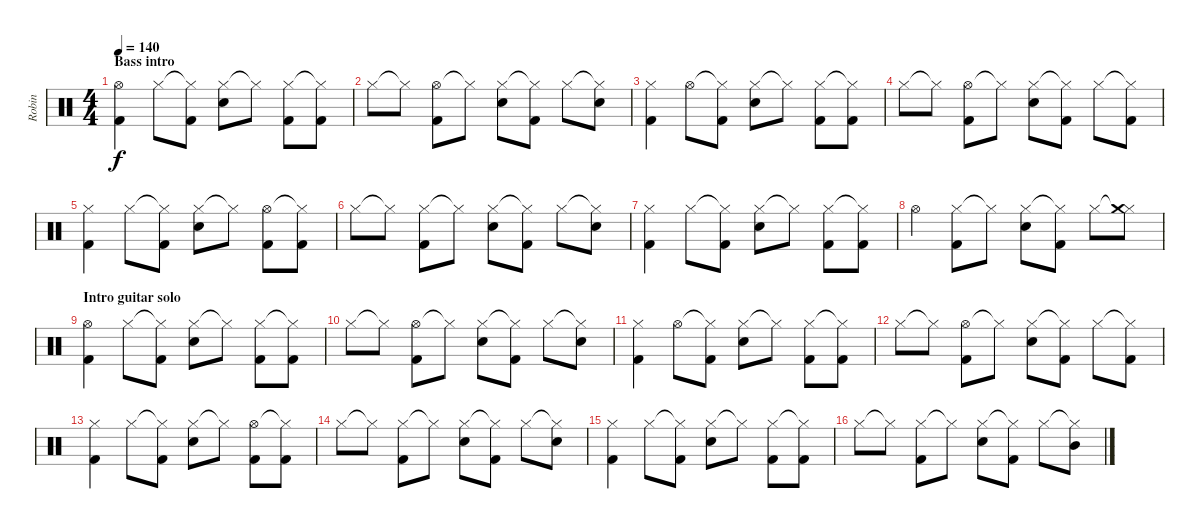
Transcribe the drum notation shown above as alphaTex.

\track ("Robin" "Robin") {instrument percussion}
\staff {score}
\articulation defaults
\ts (4 4)
\section ("" "Bass intro")
\tempo 140
\clef neutral
\ks c
("Hi-Hat (open)" "Kick (hit) 2").4{dy f} "Hi-Hat (closed)".8 ("Hi-Hat (closed)"{t} "Kick (hit) 2").8 ("Hi-Hat (closed)" "Snare (hit) 2").8 "Hi-Hat (closed)"{t}.8 ("Hi-Hat (closed)" "Kick (hit) 2").8 ("Hi-Hat (closed)"{t} "Kick (hit) 2").8 |
"Hi-Hat (closed)".8 "Hi-Hat (closed)"{t}.8 ("Hi-Hat (open)" "Kick (hit) 2").8 "Hi-Hat (closed)"{t}.8 ("Hi-Hat (closed)" "Snare (hit) 2").8 ("Hi-Hat (closed)"{t} "Kick (hit) 2").8 "Hi-Hat (closed)".8 ("Hi-Hat (closed)"{t} "Snare (hit) 2").8 |
("Hi-Hat (closed)" "Kick (hit) 2").4 "Hi-Hat (open)".8 ("Hi-Hat (closed)"{t} "Kick (hit) 2").8 ("Hi-Hat (closed)" "Snare (hit) 2").8 "Hi-Hat (closed)"{t}.8 ("Hi-Hat (closed)" "Kick (hit) 2").8 ("Hi-Hat (closed)"{t} "Kick (hit) 2").8 |
"Hi-Hat (closed)".8 "Hi-Hat (closed)"{t}.8 ("Hi-Hat (open)" "Kick (hit) 2").8 "Hi-Hat (closed)"{t}.8 ("Hi-Hat (closed)" "Snare (hit) 2").8 ("Hi-Hat (closed)"{t} "Kick (hit) 2").8 "Hi-Hat (closed)".8 ("Hi-Hat (closed)"{t} "Kick (hit) 2").8 |
("Hi-Hat (closed)" "Kick (hit) 2").4 "Hi-Hat (closed)".8 ("Hi-Hat (closed)"{t} "Kick (hit) 2").8 ("Hi-Hat (closed)" "Snare (hit) 2").8 "Hi-Hat (closed)"{t}.8 ("Hi-Hat (open)" "Kick (hit) 2").8 ("Hi-Hat (closed)"{t} "Kick (hit) 2").8 |
"Hi-Hat (closed)".8 "Hi-Hat (closed)"{t}.8 ("Hi-Hat (closed)" "Kick (hit) 2").8 "Hi-Hat (closed)"{t}.8 ("Hi-Hat (closed)" "Snare (hit) 2").8 ("Hi-Hat (closed)"{t} "Kick (hit) 2").8 "Hi-Hat (closed)".8 ("Hi-Hat (closed)"{t} "Snare (hit) 2").8 |
("Hi-Hat (closed)" "Kick (hit) 2").4 "Hi-Hat (closed)".8 ("Hi-Hat (closed)"{t} "Kick (hit) 2").8 ("Hi-Hat (closed)" "Snare (hit) 2").8 "Hi-Hat (closed)"{t}.8 ("Hi-Hat (closed)" "Kick (hit) 2").8 ("Hi-Hat (closed)"{t} "Kick (hit) 2").8 |
"Hi-Hat (open)".4 ("Hi-Hat (closed)" "Kick (hit) 2").8 "Hi-Hat (closed)"{t}.8 ("Hi-Hat (closed)" "Snare (hit) 2").8 ("Hi-Hat (closed)"{t} "Kick (hit) 2").8 "Hi-Hat (closed)".8 ("Hi-Hat (closed)"{t} "Crash medium (hit)").8 |
\section ("" "Intro guitar solo")
("Hi-Hat (open)" "Kick (hit) 2").4 "Hi-Hat (closed)".8 ("Hi-Hat (closed)"{t} "Kick (hit) 2").8 ("Hi-Hat (closed)" "Snare (hit) 2").8 "Hi-Hat (closed)"{t}.8 ("Hi-Hat (closed)" "Kick (hit) 2").8 ("Hi-Hat (closed)"{t} "Kick (hit) 2").8 |
"Hi-Hat (closed)".8 "Hi-Hat (closed)"{t}.8 ("Hi-Hat (open)" "Kick (hit) 2").8 "Hi-Hat (closed)"{t}.8 ("Hi-Hat (closed)" "Snare (hit) 2").8 ("Hi-Hat (closed)"{t} "Kick (hit) 2").8 "Hi-Hat (closed)".8 ("Hi-Hat (closed)"{t} "Snare (hit) 2").8 |
("Hi-Hat (closed)" "Kick (hit) 2").4 "Hi-Hat (open)".8 ("Hi-Hat (closed)"{t} "Kick (hit) 2").8 ("Hi-Hat (closed)" "Snare (hit) 2").8 "Hi-Hat (closed)"{t}.8 ("Hi-Hat (closed)" "Kick (hit) 2").8 ("Hi-Hat (closed)"{t} "Kick (hit) 2").8 |
"Hi-Hat (closed)".8 "Hi-Hat (closed)"{t}.8 ("Hi-Hat (open)" "Kick (hit) 2").8 "Hi-Hat (closed)"{t}.8 ("Hi-Hat (closed)" "Snare (hit) 2").8 ("Hi-Hat (closed)"{t} "Kick (hit) 2").8 "Hi-Hat (closed)".8 ("Hi-Hat (closed)"{t} "Kick (hit) 2").8 |
("Hi-Hat (closed)" "Kick (hit) 2").4 "Hi-Hat (closed)".8 ("Hi-Hat (closed)"{t} "Kick (hit) 2").8 ("Hi-Hat (closed)" "Snare (hit) 2").8 "Hi-Hat (closed)"{t}.8 ("Hi-Hat (open)" "Kick (hit) 2").8 ("Hi-Hat (closed)"{t} "Kick (hit) 2").8 |
"Hi-Hat (closed)".8 "Hi-Hat (closed)"{t}.8 ("Hi-Hat (closed)" "Kick (hit) 2").8 "Hi-Hat (closed)"{t}.8 ("Hi-Hat (closed)" "Snare (hit) 2").8 ("Hi-Hat (closed)"{t} "Kick (hit) 2").8 "Hi-Hat (closed)".8 ("Hi-Hat (closed)"{t} "Snare (hit) 2").8 |
("Hi-Hat (closed)" "Kick (hit) 2").4 "Hi-Hat (closed)".8 ("Hi-Hat (closed)"{t} "Kick (hit) 2").8 ("Hi-Hat (closed)" "Snare (hit) 2").8 "Hi-Hat (closed)"{t}.8 ("Hi-Hat (closed)" "Kick (hit) 2").8 ("Hi-Hat (closed)"{t} "Kick (hit) 2").8 |
"Hi-Hat (closed)".8 "Hi-Hat (closed)"{t}.8 ("Hi-Hat (closed)" "Kick (hit) 2").8 "Hi-Hat (closed)"{t}.8 ("Hi-Hat (closed)" "Snare (hit) 2").8 ("Hi-Hat (closed)"{t} "Kick (hit) 2").8 "Hi-Hat (closed)".8 ("Hi-Hat (closed)"{t} "Mid Tom (hit)").8
